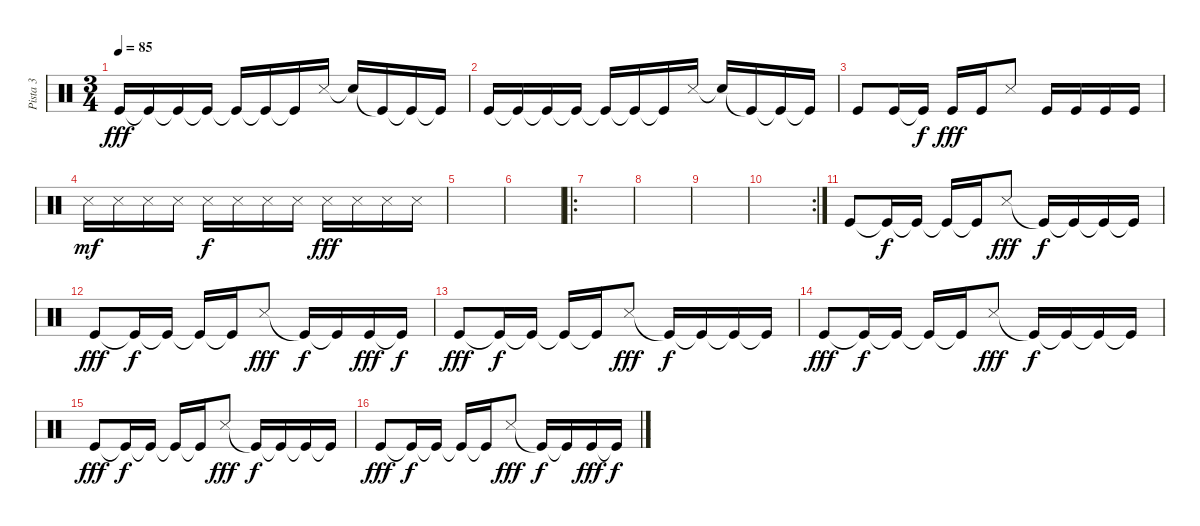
\track ("Pista 3" "Pista 3") {instrument percussion}
\staff {score}
\articulation defaults
\ts (3 4)
\tempo 85
\clef neutral
\ks c "Kick (hit)".16{dy fff} "Kick (hit)"{t}.16 "Kick (hit)"{t}.16 "Kick (hit)"{t}.16 "Kick (hit)"{t}.16 "Kick (hit)"{t}.16 "Kick (hit)"{t}.16 "Snare (side stick) 3".16 "Snare (hit)"{t}.16 "Kick (hit)"{t}.16 "Kick (hit)"{t}.16 "Kick (hit)"{t}.16
|
"Kick (hit)".16 "Kick (hit)"{t}.16 "Kick (hit)"{t}.16 "Kick (hit)"{t}.16 "Kick (hit)"{t}.16 "Kick (hit)"{t}.16 "Kick (hit)"{t}.16 "Snare (side stick) 3".16 "Snare (hit)"{t}.16 "Kick (hit)"{t}.16 "Kick (hit)"{t}.16 "Kick (hit)"{t}.16 |
"Kick (hit)".8 "Kick (hit)".16 "Kick (hit)"{t}.16{dy f} "Kick (hit)".16{dy fff} "Kick (hit)".16 "Snare (side stick) 3".8 "Kick (hit)".16 "Kick (hit)".16 "Kick (hit)".16 "Kick (hit)".16 |
"Snare (side stick) 3".16{dy mf volume 16} "Snare (side stick) 3".16 "Snare (side stick) 3".16 "Snare (side stick) 3".16 "Snare (side stick) 3".16{dy f} "Snare (side stick) 3".16 "Snare (side stick) 3".16 "Snare (side stick) 3".16 "Snare (side stick) 3".16{dy fff} "Snare (side stick) 3".16 "Snare (side stick) 3".16 "Snare (side stick) 3".16 |
|
|
\ro
|
|
|
\rc 2
|
"Kick (hit)".8 "Kick (hit)"{t}.16{dy f} "Kick (hit)"{t}.16 "Kick (hit)"{t}.16 "Kick (hit)"{t}.16 "Snare (side stick) 3".8{dy fff} "Kick (hit)"{t}.16{dy f} "Kick (hit)"{t}.16 "Kick (hit)"{t}.16 "Kick (hit)"{t}.16 |
"Kick (hit)".8{dy fff} "Kick (hit)"{t}.16{dy f} "Kick (hit)"{t}.16 "Kick (hit)"{t}.16 "Kick (hit)"{t}.16 "Snare (side stick) 3".8{dy fff} "Kick (hit)"{t}.16{dy f} "Kick (hit)"{t}.16 "Kick (hit)".16{dy fff} "Kick (hit)"{t}.16{dy f} |
"Kick (hit)".8{dy fff} "Kick (hit)"{t}.16{dy f} "Kick (hit)"{t}.16 "Kick (hit)"{t}.16 "Kick (hit)"{t}.16 "Snare (side stick) 3".8{dy fff} "Kick (hit)"{t}.16{dy f} "Kick (hit)"{t}.16 "Kick (hit)"{t}.16 "Kick (hit)"{t}.16 |
"Kick (hit)".8{dy fff} "Kick (hit)"{t}.16{dy f} "Kick (hit)"{t}.16 "Kick (hit)"{t}.16 "Kick (hit)"{t}.16 "Snare (side stick) 3".8{dy fff} "Kick (hit)"{t}.16{dy f} "Kick (hit)"{t}.16 "Kick (hit)"{t}.16 "Kick (hit)"{t}.16 |
"Kick (hit)".8{dy fff} "Kick (hit)"{t}.16{dy f} "Kick (hit)"{t}.16 "Kick (hit)"{t}.16 "Kick (hit)"{t}.16 "Snare (side stick) 3".8{dy fff} "Kick (hit)"{t}.16{dy f} "Kick (hit)"{t}.16 "Kick (hit)"{t}.16 "Kick (hit)"{t}.16 |
"Kick (hit)".8{dy fff} "Kick (hit)"{t}.16{dy f} "Kick (hit)"{t}.16 "Kick (hit)"{t}.16 "Kick (hit)"{t}.16 "Snare (side stick) 3".8{dy fff} "Kick (hit)"{t}.16{dy f} "Kick (hit)"{t}.16 "Kick (hit)".16{dy fff} "Kick (hit)"{t}.16{dy f}
